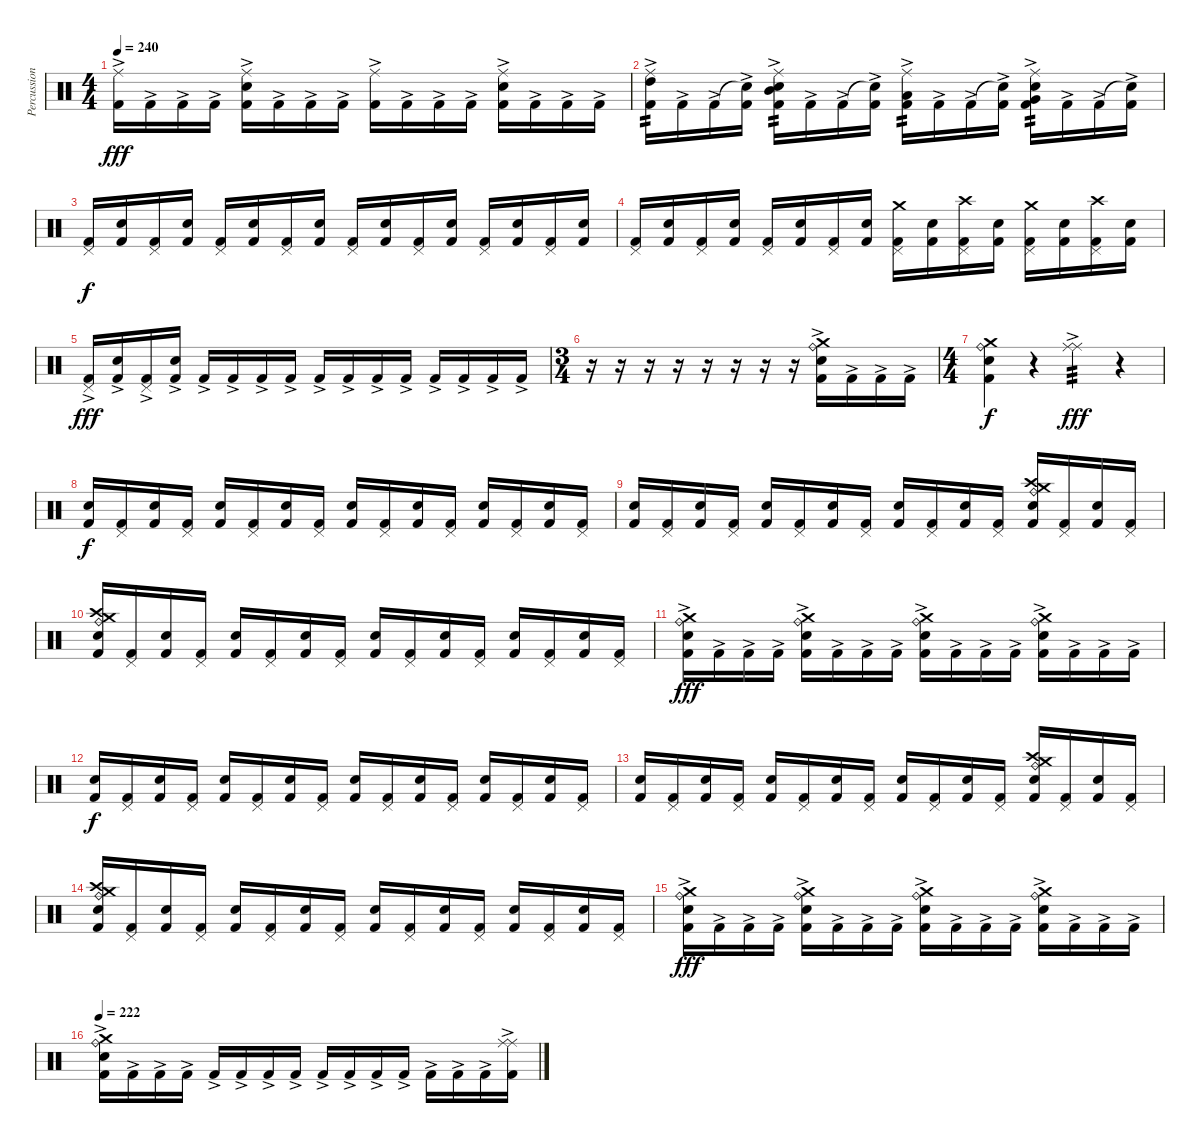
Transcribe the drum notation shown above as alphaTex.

\track ("Percussions" "Percussion") {instrument percussion}
\staff {score}
\articulation defaults
\ts (4 4)
\tempo 240
\clef neutral
\ks c
("Ride (middle)" "Kick (hit) 2"{ac}).16{dy fff} "Kick (hit) 2"{ac}.16 "Kick (hit) 2"{ac}.16 "Kick (hit) 2"{ac}.16 ("Snare (hit) 2" "Ride (middle)" "Kick (hit) 2"{ac}).16 "Kick (hit) 2"{ac}.16 "Kick (hit) 2"{ac}.16 "Kick (hit) 2"{ac}.16 ("Ride (middle)" "Kick (hit) 2"{ac}).16 "Kick (hit) 2"{ac}.16 "Kick (hit) 2"{ac}.16 "Kick (hit) 2"{ac}.16 ("Snare (hit) 2" "Ride (middle)" "Kick (hit) 2"{ac}).16 "Kick (hit) 2"{ac}.16 "Kick (hit) 2"{ac}.16 "Kick (hit) 2"{ac}.16 |
("High Tom (hit)"{ac} "Ride (middle)" "Kick (hit) 2"{ac}).16{tp 2} "Kick (hit) 2"{ac}.16 "Kick (hit) 2"{ac}.16 ("Snare (hit)"{t} "Kick (hit) 2"{ac}).16 ("Mid Tom (hit)"{ac} "Snare (hit) 2" "Ride (middle)" "Kick (hit) 2"{ac}).16{tp 2} "Kick (hit) 2"{ac}.16 "Kick (hit) 2"{ac}.16 ("Snare (hit)"{t} "Kick (hit) 2"{ac}).16 ("Low Tom (hit)"{ac} "Ride (middle)" "Kick (hit) 2"{ac}).16{tp 2} "Kick (hit) 2"{ac}.16 "Kick (hit) 2"{ac}.16 ("Snare (hit)"{t} "Kick (hit) 2"{ac}).16 ("Very Low Tom (hit)"{ac} "Snare (hit) 2" "Ride (middle)" "Kick (hit) 2"{ac}).16{tp 2} "Kick (hit) 2"{ac}.16 "Kick (hit) 2"{ac}.16 ("Snare (hit)"{t} "Kick (hit) 2"{ac}).16 |
("Pedal Hi-Hat (hit)" "Kick (hit) 2").16{dy f} ("Snare (hit) 2" "Kick (hit) 2").16 ("Pedal Hi-Hat (hit)" "Kick (hit) 2").16 ("Snare (hit) 2" "Kick (hit) 2").16 ("Pedal Hi-Hat (hit)" "Kick (hit) 2").16 ("Snare (hit) 2" "Kick (hit) 2").16 ("Pedal Hi-Hat (hit)" "Kick (hit) 2").16 ("Snare (hit) 2" "Kick (hit) 2").16 ("Pedal Hi-Hat (hit)" "Kick (hit) 2").16 ("Snare (hit) 2" "Kick (hit) 2").16 ("Pedal Hi-Hat (hit)" "Kick (hit) 2").16 ("Snare (hit) 2" "Kick (hit) 2").16 ("Pedal Hi-Hat (hit)" "Kick (hit) 2").16 ("Snare (hit) 2" "Kick (hit) 2").16 ("Pedal Hi-Hat (hit)" "Kick (hit) 2").16 ("Snare (hit) 2" "Kick (hit) 2").16 |
("Pedal Hi-Hat (hit)" "Kick (hit) 2").16 ("Snare (hit) 2" "Kick (hit) 2").16 ("Pedal Hi-Hat (hit)" "Kick (hit) 2").16 ("Snare (hit) 2" "Kick (hit) 2").16 ("Pedal Hi-Hat (hit)" "Kick (hit) 2").16 ("Snare (hit) 2" "Kick (hit) 2").16 ("Pedal Hi-Hat (hit)" "Kick (hit) 2").16 ("Snare (hit) 2" "Kick (hit) 2").16 ("Crash medium (hit)" "Pedal Hi-Hat (hit)" "Kick (hit) 2").16 ("Snare (hit) 2" "Kick (hit) 2").16 ("Crash high (hit)" "Pedal Hi-Hat (hit)" "Kick (hit) 2").16 ("Snare (hit) 2" "Kick (hit) 2").16 ("Crash medium (hit)" "Pedal Hi-Hat (hit)" "Kick (hit) 2").16 ("Snare (hit) 2" "Kick (hit) 2").16 ("Crash high (hit)" "Pedal Hi-Hat (hit)" "Kick (hit) 2").16 ("Snare (hit) 2" "Kick (hit) 2").16 |
("Pedal Hi-Hat (hit)" "Kick (hit) 2"{ac}).16{dy fff} ("Snare (hit) 2" "Kick (hit) 2"{ac}).16 ("Pedal Hi-Hat (hit)" "Kick (hit) 2"{ac}).16 ("Snare (hit) 2" "Kick (hit) 2"{ac}).16 "Kick (hit) 2"{ac}.16 "Kick (hit) 2"{ac}.16 "Kick (hit) 2"{ac}.16 "Kick (hit) 2"{ac}.16 "Kick (hit) 2"{ac}.16 "Kick (hit) 2"{ac}.16 "Kick (hit) 2"{ac}.16 "Kick (hit) 2"{ac}.16 "Kick (hit) 2"{ac}.16 "Kick (hit) 2"{ac}.16 "Kick (hit) 2"{ac}.16 "Kick (hit) 2"{ac}.16 |
\ts (3 4)
r.16 r.16 r.16 r.16 r.16 r.16 r.16 r.16 ("Ride (bell)" "Snare (hit) 2" "Crash medium (hit)" "Kick (hit) 2"{ac}).16 "Kick (hit) 2"{ac}.16 "Kick (hit) 2"{ac}.16 "Kick (hit) 2"{ac}.16 |
\ts (4 4)
("Ride (bell)" "Snare (hit) 2" "Crash medium (hit)" "Kick (hit) 2").4{dy f} r.4 ("Ride (middle)" "Ride (middle)"{ac}).4{tp 3 dy fff} r.4 |
("Snare (hit) 2" "Kick (hit) 2").16{dy f} ("Pedal Hi-Hat (hit)" "Kick (hit) 2").16 ("Snare (hit) 2" "Kick (hit) 2").16 ("Pedal Hi-Hat (hit)" "Kick (hit) 2").16 ("Snare (hit) 2" "Kick (hit) 2").16 ("Pedal Hi-Hat (hit)" "Kick (hit) 2").16 ("Snare (hit) 2" "Kick (hit) 2").16 ("Pedal Hi-Hat (hit)" "Kick (hit) 2").16 ("Snare (hit) 2" "Kick (hit) 2").16 ("Pedal Hi-Hat (hit)" "Kick (hit) 2").16 ("Snare (hit) 2" "Kick (hit) 2").16 ("Pedal Hi-Hat (hit)" "Kick (hit) 2").16 ("Snare (hit) 2" "Kick (hit) 2").16 ("Pedal Hi-Hat (hit)" "Kick (hit) 2").16 ("Snare (hit) 2" "Kick (hit) 2").16 ("Pedal Hi-Hat (hit)" "Kick (hit) 2").16 |
("Snare (hit) 2" "Kick (hit) 2").16 ("Pedal Hi-Hat (hit)" "Kick (hit) 2").16 ("Snare (hit) 2" "Kick (hit) 2").16 ("Pedal Hi-Hat (hit)" "Kick (hit) 2").16 ("Snare (hit) 2" "Kick (hit) 2").16 ("Pedal Hi-Hat (hit)" "Kick (hit) 2").16 ("Snare (hit) 2" "Kick (hit) 2").16 ("Pedal Hi-Hat (hit)" "Kick (hit) 2").16 ("Snare (hit) 2" "Kick (hit) 2").16 ("Pedal Hi-Hat (hit)" "Kick (hit) 2").16 ("Snare (hit) 2" "Kick (hit) 2").16 ("Pedal Hi-Hat (hit)" "Kick (hit) 2").16 ("Crash high (hit)" "Crash medium (hit)" "Ride (bell)" "Snare (hit) 2" "Kick (hit) 2").16 ("Pedal Hi-Hat (hit)" "Kick (hit) 2").16 ("Snare (hit) 2" "Kick (hit) 2").16 ("Pedal Hi-Hat (hit)" "Kick (hit) 2").16 |
("Crash high (hit)" "Crash medium (hit)" "Ride (bell)" "Snare (hit) 2" "Kick (hit) 2").16 ("Pedal Hi-Hat (hit)" "Kick (hit) 2").16 ("Snare (hit) 2" "Kick (hit) 2").16 ("Pedal Hi-Hat (hit)" "Kick (hit) 2").16 ("Snare (hit) 2" "Kick (hit) 2").16 ("Pedal Hi-Hat (hit)" "Kick (hit) 2").16 ("Snare (hit) 2" "Kick (hit) 2").16 ("Pedal Hi-Hat (hit)" "Kick (hit) 2").16 ("Snare (hit) 2" "Kick (hit) 2").16 ("Pedal Hi-Hat (hit)" "Kick (hit) 2").16 ("Snare (hit) 2" "Kick (hit) 2").16 ("Pedal Hi-Hat (hit)" "Kick (hit) 2").16 ("Snare (hit) 2" "Kick (hit) 2").16 ("Pedal Hi-Hat (hit)" "Kick (hit) 2").16 ("Snare (hit) 2" "Kick (hit) 2").16 ("Pedal Hi-Hat (hit)" "Kick (hit) 2").16 |
("Snare (hit) 2" "Crash medium (hit)" "Ride (bell)" "Kick (hit) 2"{ac}).16{dy fff} "Kick (hit) 2"{ac}.16 "Kick (hit) 2"{ac}.16 "Kick (hit) 2"{ac}.16 ("Snare (hit) 2" "Crash medium (hit)" "Ride (bell)" "Kick (hit) 2"{ac}).16 "Kick (hit) 2"{ac}.16 "Kick (hit) 2"{ac}.16 "Kick (hit) 2"{ac}.16 ("Snare (hit) 2" "Crash medium (hit)" "Ride (bell)" "Kick (hit) 2"{ac}).16 "Kick (hit) 2"{ac}.16 "Kick (hit) 2"{ac}.16 "Kick (hit) 2"{ac}.16 ("Snare (hit) 2" "Crash medium (hit)" "Ride (bell)" "Kick (hit) 2"{ac}).16 "Kick (hit) 2"{ac}.16 "Kick (hit) 2"{ac}.16 "Kick (hit) 2"{ac}.16 |
("Snare (hit) 2" "Kick (hit) 2").16{dy f} ("Pedal Hi-Hat (hit)" "Kick (hit) 2").16 ("Snare (hit) 2" "Kick (hit) 2").16 ("Pedal Hi-Hat (hit)" "Kick (hit) 2").16 ("Snare (hit) 2" "Kick (hit) 2").16 ("Pedal Hi-Hat (hit)" "Kick (hit) 2").16 ("Snare (hit) 2" "Kick (hit) 2").16 ("Pedal Hi-Hat (hit)" "Kick (hit) 2").16 ("Snare (hit) 2" "Kick (hit) 2").16 ("Pedal Hi-Hat (hit)" "Kick (hit) 2").16 ("Snare (hit) 2" "Kick (hit) 2").16 ("Pedal Hi-Hat (hit)" "Kick (hit) 2").16 ("Snare (hit) 2" "Kick (hit) 2").16 ("Pedal Hi-Hat (hit)" "Kick (hit) 2").16 ("Snare (hit) 2" "Kick (hit) 2").16 ("Pedal Hi-Hat (hit)" "Kick (hit) 2").16 |
("Snare (hit) 2" "Kick (hit) 2").16 ("Pedal Hi-Hat (hit)" "Kick (hit) 2").16 ("Snare (hit) 2" "Kick (hit) 2").16 ("Pedal Hi-Hat (hit)" "Kick (hit) 2").16 ("Snare (hit) 2" "Kick (hit) 2").16 ("Pedal Hi-Hat (hit)" "Kick (hit) 2").16 ("Snare (hit) 2" "Kick (hit) 2").16 ("Pedal Hi-Hat (hit)" "Kick (hit) 2").16 ("Snare (hit) 2" "Kick (hit) 2").16 ("Pedal Hi-Hat (hit)" "Kick (hit) 2").16 ("Snare (hit) 2" "Kick (hit) 2").16 ("Pedal Hi-Hat (hit)" "Kick (hit) 2").16 ("Crash high (hit)" "Crash medium (hit)" "Ride (bell)" "Snare (hit) 2" "Kick (hit) 2").16 ("Pedal Hi-Hat (hit)" "Kick (hit) 2").16 ("Snare (hit) 2" "Kick (hit) 2").16 ("Pedal Hi-Hat (hit)" "Kick (hit) 2").16 |
("Crash high (hit)" "Crash medium (hit)" "Ride (bell)" "Snare (hit) 2" "Kick (hit) 2").16 ("Pedal Hi-Hat (hit)" "Kick (hit) 2").16 ("Snare (hit) 2" "Kick (hit) 2").16 ("Pedal Hi-Hat (hit)" "Kick (hit) 2").16 ("Snare (hit) 2" "Kick (hit) 2").16 ("Pedal Hi-Hat (hit)" "Kick (hit) 2").16 ("Snare (hit) 2" "Kick (hit) 2").16 ("Pedal Hi-Hat (hit)" "Kick (hit) 2").16 ("Snare (hit) 2" "Kick (hit) 2").16 ("Pedal Hi-Hat (hit)" "Kick (hit) 2").16 ("Snare (hit) 2" "Kick (hit) 2").16 ("Pedal Hi-Hat (hit)" "Kick (hit) 2").16 ("Snare (hit) 2" "Kick (hit) 2").16 ("Pedal Hi-Hat (hit)" "Kick (hit) 2").16 ("Snare (hit) 2" "Kick (hit) 2").16 ("Pedal Hi-Hat (hit)" "Kick (hit) 2").16 |
("Snare (hit) 2" "Crash medium (hit)" "Ride (bell)" "Kick (hit) 2"{ac}).16{dy fff} "Kick (hit) 2"{ac}.16 "Kick (hit) 2"{ac}.16 "Kick (hit) 2"{ac}.16 ("Snare (hit) 2" "Crash medium (hit)" "Ride (bell)" "Kick (hit) 2"{ac}).16 "Kick (hit) 2"{ac}.16 "Kick (hit) 2"{ac}.16 "Kick (hit) 2"{ac}.16 ("Snare (hit) 2" "Crash medium (hit)" "Ride (bell)" "Kick (hit) 2"{ac}).16 "Kick (hit) 2"{ac}.16 "Kick (hit) 2"{ac}.16 "Kick (hit) 2"{ac}.16 ("Snare (hit) 2" "Crash medium (hit)" "Ride (bell)" "Kick (hit) 2"{ac}).16 "Kick (hit) 2"{ac}.16 "Kick (hit) 2"{ac}.16 "Kick (hit) 2"{ac}.16 |
\tempo 222
("Snare (hit) 2" "Crash medium (hit)" "Ride (bell)" "Kick (hit) 2"{ac}).16 "Kick (hit) 2"{ac}.16 "Kick (hit) 2"{ac}.16 "Kick (hit) 2"{ac}.16 "Kick (hit) 2"{ac}.16 "Kick (hit) 2"{ac}.16 "Kick (hit) 2"{ac}.16 "Kick (hit) 2"{ac}.16 "Kick (hit) 2"{ac}.16 "Kick (hit) 2"{ac}.16 "Kick (hit) 2"{ac}.16 "Kick (hit) 2"{ac}.16 "Kick (hit) 2"{ac}.16 "Kick (hit) 2"{ac}.16 "Kick (hit) 2"{ac}.16 ("Ride (middle)" "Ride (middle)" "Kick (hit) 2"{ac}).16
